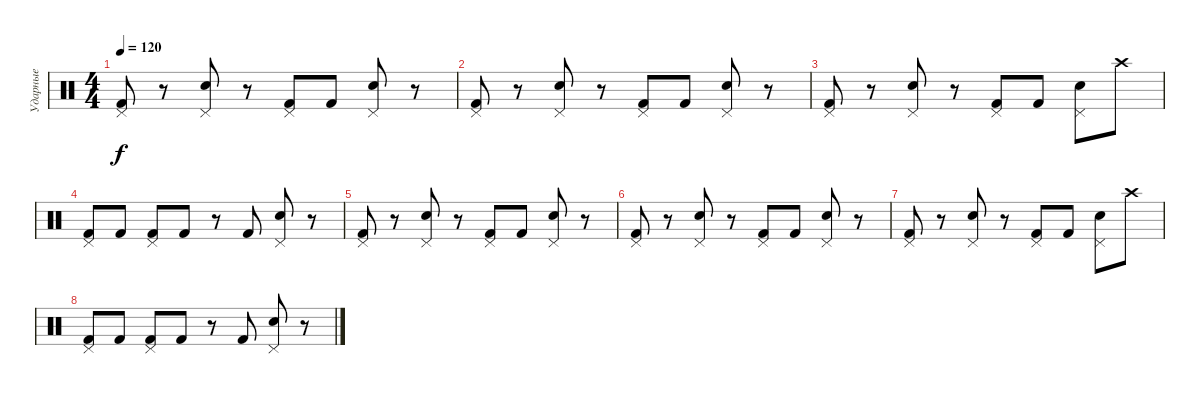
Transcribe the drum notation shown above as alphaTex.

\track ("Ударные" "Ударные") {instrument percussion}
\staff {score}
\articulation defaults
\ts (4 4)
\tempo 120
\clef neutral
\ks c
("Pedal Hi-Hat (hit)" "Kick (hit) 2").8{dy f} r.8 ("Pedal Hi-Hat (hit)" "Snare (hit) 2").8 r.8 ("Pedal Hi-Hat (hit)" "Kick (hit) 2").8 "Kick (hit) 2".8 ("Pedal Hi-Hat (hit)" "Snare (hit) 2").8 r.8 |
("Pedal Hi-Hat (hit)" "Kick (hit) 2").8 r.8 ("Pedal Hi-Hat (hit)" "Snare (hit) 2").8 r.8 ("Pedal Hi-Hat (hit)" "Kick (hit) 2").8 "Kick (hit) 2".8 ("Pedal Hi-Hat (hit)" "Snare (hit) 2").8 r.8 |
("Pedal Hi-Hat (hit)" "Kick (hit) 2").8 r.8 ("Pedal Hi-Hat (hit)" "Snare (hit) 2").8 r.8 ("Pedal Hi-Hat (hit)" "Kick (hit) 2").8 "Kick (hit) 2".8 ("Pedal Hi-Hat (hit)" "Snare (hit) 2").8 "Crash high (hit)".8 |
("Pedal Hi-Hat (hit)" "Kick (hit) 2").8 "Kick (hit) 2".8 ("Pedal Hi-Hat (hit)" "Kick (hit) 2").8 "Kick (hit) 2".8 r.8 "Kick (hit) 2".8 ("Pedal Hi-Hat (hit)" "Snare (hit) 2").8 r.8 |
("Pedal Hi-Hat (hit)" "Kick (hit) 2").8 r.8 ("Pedal Hi-Hat (hit)" "Snare (hit) 2").8 r.8 ("Pedal Hi-Hat (hit)" "Kick (hit) 2").8 "Kick (hit) 2".8 ("Pedal Hi-Hat (hit)" "Snare (hit) 2").8 r.8 |
("Pedal Hi-Hat (hit)" "Kick (hit) 2").8 r.8 ("Pedal Hi-Hat (hit)" "Snare (hit) 2").8 r.8 ("Pedal Hi-Hat (hit)" "Kick (hit) 2").8 "Kick (hit) 2".8 ("Pedal Hi-Hat (hit)" "Snare (hit) 2").8 r.8 |
("Pedal Hi-Hat (hit)" "Kick (hit) 2").8 r.8 ("Pedal Hi-Hat (hit)" "Snare (hit) 2").8 r.8 ("Pedal Hi-Hat (hit)" "Kick (hit) 2").8 "Kick (hit) 2".8 ("Pedal Hi-Hat (hit)" "Snare (hit) 2").8 "Crash high (hit)".8 |
("Pedal Hi-Hat (hit)" "Kick (hit) 2").8 "Kick (hit) 2".8 ("Pedal Hi-Hat (hit)" "Kick (hit) 2").8 "Kick (hit) 2".8 r.8 "Kick (hit) 2".8 ("Pedal Hi-Hat (hit)" "Snare (hit) 2").8 r.8
